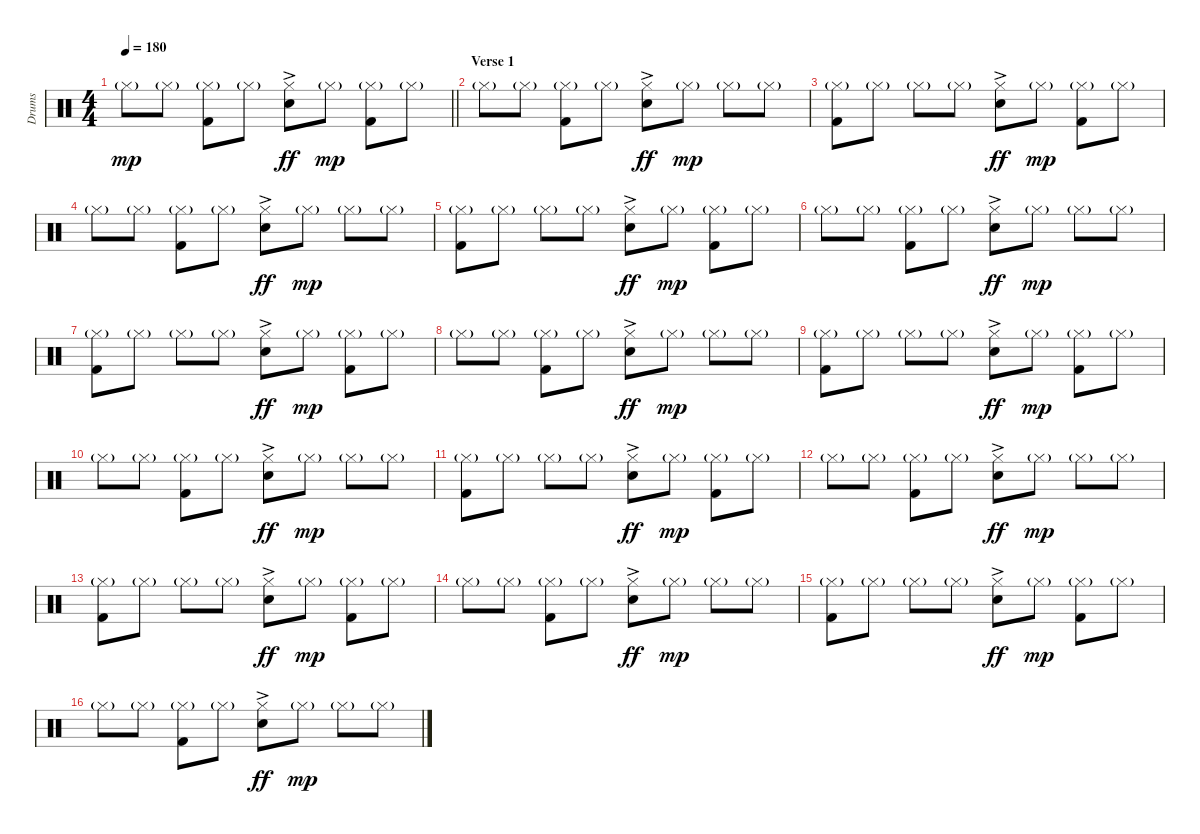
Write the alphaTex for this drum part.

\track ("Drums" "Drums") {instrument percussion}
\staff {score}
\articulation defaults
\ts (4 4)
\tempo 180
\clef neutral
\barLineRight lightlight
\ks c "Hi-Hat (closed)"{g}.8{dy mp} "Hi-Hat (closed)"{g}.8
("Hi-Hat (closed)"{g} "Kick (hit) 2").8 "Hi-Hat (closed)"{g}.8 ("Hi-Hat (closed)"{ac} "Snare (hit) 2"{ac}).8{dy ff} "Hi-Hat (closed)"{g}.8{dy mp} ("Hi-Hat (closed)"{g} "Kick (hit) 2").8 "Hi-Hat (closed)"{g}.8 |
\section ("" "Verse 1")
"Hi-Hat (closed)"{g}.8 "Hi-Hat (closed)"{g}.8 ("Hi-Hat (closed)"{g} "Kick (hit) 2").8 "Hi-Hat (closed)"{g}.8 ("Hi-Hat (closed)"{ac} "Snare (hit) 2"{ac}).8{dy ff} "Hi-Hat (closed)"{g}.8{dy mp} "Hi-Hat (closed)"{g}.8 "Hi-Hat (closed)"{g}.8 |
("Hi-Hat (closed)"{g} "Kick (hit) 2").8 "Hi-Hat (closed)"{g}.8 "Hi-Hat (closed)"{g}.8 "Hi-Hat (closed)"{g}.8 ("Hi-Hat (closed)"{ac} "Snare (hit) 2"{ac}).8{dy ff} "Hi-Hat (closed)"{g}.8{dy mp} ("Hi-Hat (closed)"{g} "Kick (hit) 2").8 "Hi-Hat (closed)"{g}.8 |
"Hi-Hat (closed)"{g}.8 "Hi-Hat (closed)"{g}.8 ("Hi-Hat (closed)"{g} "Kick (hit) 2").8 "Hi-Hat (closed)"{g}.8 ("Hi-Hat (closed)"{ac} "Snare (hit) 2"{ac}).8{dy ff} "Hi-Hat (closed)"{g}.8{dy mp} "Hi-Hat (closed)"{g}.8 "Hi-Hat (closed)"{g}.8 |
("Hi-Hat (closed)"{g} "Kick (hit) 2").8 "Hi-Hat (closed)"{g}.8 "Hi-Hat (closed)"{g}.8 "Hi-Hat (closed)"{g}.8 ("Hi-Hat (closed)"{ac} "Snare (hit) 2"{ac}).8{dy ff} "Hi-Hat (closed)"{g}.8{dy mp} ("Hi-Hat (closed)"{g} "Kick (hit) 2").8 "Hi-Hat (closed)"{g}.8 |
"Hi-Hat (closed)"{g}.8 "Hi-Hat (closed)"{g}.8 ("Hi-Hat (closed)"{g} "Kick (hit) 2").8 "Hi-Hat (closed)"{g}.8 ("Hi-Hat (closed)"{ac} "Snare (hit) 2"{ac}).8{dy ff} "Hi-Hat (closed)"{g}.8{dy mp} "Hi-Hat (closed)"{g}.8 "Hi-Hat (closed)"{g}.8 |
("Hi-Hat (closed)"{g} "Kick (hit) 2").8 "Hi-Hat (closed)"{g}.8 "Hi-Hat (closed)"{g}.8 "Hi-Hat (closed)"{g}.8 ("Hi-Hat (closed)"{ac} "Snare (hit) 2"{ac}).8{dy ff} "Hi-Hat (closed)"{g}.8{dy mp} ("Hi-Hat (closed)"{g} "Kick (hit) 2").8 "Hi-Hat (closed)"{g}.8 |
"Hi-Hat (closed)"{g}.8 "Hi-Hat (closed)"{g}.8 ("Hi-Hat (closed)"{g} "Kick (hit) 2").8 "Hi-Hat (closed)"{g}.8 ("Hi-Hat (closed)"{ac} "Snare (hit) 2"{ac}).8{dy ff} "Hi-Hat (closed)"{g}.8{dy mp} "Hi-Hat (closed)"{g}.8 "Hi-Hat (closed)"{g}.8 |
("Hi-Hat (closed)"{g} "Kick (hit) 2").8 "Hi-Hat (closed)"{g}.8 "Hi-Hat (closed)"{g}.8 "Hi-Hat (closed)"{g}.8 ("Hi-Hat (closed)"{ac} "Snare (hit) 2"{ac}).8{dy ff} "Hi-Hat (closed)"{g}.8{dy mp} ("Hi-Hat (closed)"{g} "Kick (hit) 2").8 "Hi-Hat (closed)"{g}.8 |
"Hi-Hat (closed)"{g}.8 "Hi-Hat (closed)"{g}.8 ("Hi-Hat (closed)"{g} "Kick (hit) 2").8 "Hi-Hat (closed)"{g}.8 ("Hi-Hat (closed)"{ac} "Snare (hit) 2"{ac}).8{dy ff} "Hi-Hat (closed)"{g}.8{dy mp} "Hi-Hat (closed)"{g}.8 "Hi-Hat (closed)"{g}.8 |
("Hi-Hat (closed)"{g} "Kick (hit) 2").8 "Hi-Hat (closed)"{g}.8 "Hi-Hat (closed)"{g}.8 "Hi-Hat (closed)"{g}.8 ("Hi-Hat (closed)"{ac} "Snare (hit) 2"{ac}).8{dy ff} "Hi-Hat (closed)"{g}.8{dy mp} ("Hi-Hat (closed)"{g} "Kick (hit) 2").8 "Hi-Hat (closed)"{g}.8 |
"Hi-Hat (closed)"{g}.8 "Hi-Hat (closed)"{g}.8 ("Hi-Hat (closed)"{g} "Kick (hit) 2").8 "Hi-Hat (closed)"{g}.8 ("Hi-Hat (closed)"{ac} "Snare (hit) 2"{ac}).8{dy ff} "Hi-Hat (closed)"{g}.8{dy mp} "Hi-Hat (closed)"{g}.8 "Hi-Hat (closed)"{g}.8 |
("Hi-Hat (closed)"{g} "Kick (hit) 2").8 "Hi-Hat (closed)"{g}.8 "Hi-Hat (closed)"{g}.8 "Hi-Hat (closed)"{g}.8 ("Hi-Hat (closed)"{ac} "Snare (hit) 2"{ac}).8{dy ff} "Hi-Hat (closed)"{g}.8{dy mp} ("Hi-Hat (closed)"{g} "Kick (hit) 2").8 "Hi-Hat (closed)"{g}.8 |
"Hi-Hat (closed)"{g}.8 "Hi-Hat (closed)"{g}.8 ("Hi-Hat (closed)"{g} "Kick (hit) 2").8 "Hi-Hat (closed)"{g}.8 ("Hi-Hat (closed)"{ac} "Snare (hit) 2"{ac}).8{dy ff} "Hi-Hat (closed)"{g}.8{dy mp} "Hi-Hat (closed)"{g}.8 "Hi-Hat (closed)"{g}.8 |
("Hi-Hat (closed)"{g} "Kick (hit) 2").8 "Hi-Hat (closed)"{g}.8 "Hi-Hat (closed)"{g}.8 "Hi-Hat (closed)"{g}.8 ("Hi-Hat (closed)"{ac} "Snare (hit) 2"{ac}).8{dy ff} "Hi-Hat (closed)"{g}.8{dy mp} ("Hi-Hat (closed)"{g} "Kick (hit) 2").8 "Hi-Hat (closed)"{g}.8 |
"Hi-Hat (closed)"{g}.8 "Hi-Hat (closed)"{g}.8 ("Hi-Hat (closed)"{g} "Kick (hit) 2").8 "Hi-Hat (closed)"{g}.8 ("Hi-Hat (closed)"{ac} "Snare (hit) 2"{ac}).8{dy ff} "Hi-Hat (closed)"{g}.8{dy mp} "Hi-Hat (closed)"{g}.8 "Hi-Hat (closed)"{g}.8
